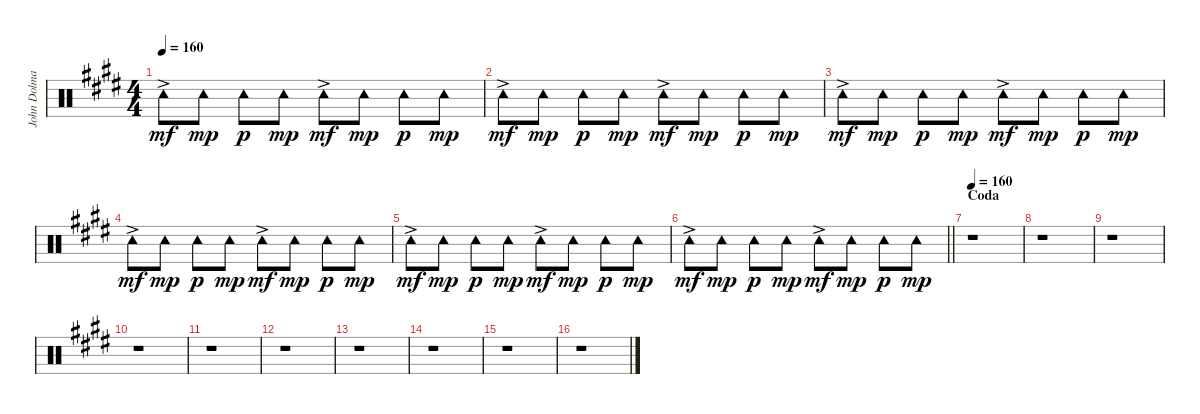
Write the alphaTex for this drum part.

\track ("John Dolmayan [Tambourine]" "John Dolma") {instrument percussion}
\staff {score}
\articulation defaults
\ts (4 4)
\tempo 160
\clef neutral
\ks c#minor "Tambourine (hit)"{ac}.8{dy mf} "Tambourine (hit)".8{dy mp} "Tambourine (hit)".8{dy p} "Tambourine (hit)".8{dy mp} "Tambourine (hit)"{ac}.8{dy mf} "Tambourine (hit)".8{dy mp} "Tambourine (hit)".8{dy p} "Tambourine (hit)".8{dy mp}
|
"Tambourine (hit)"{ac}.8{dy mf} "Tambourine (hit)".8{dy mp} "Tambourine (hit)".8{dy p} "Tambourine (hit)".8{dy mp} "Tambourine (hit)"{ac}.8{dy mf} "Tambourine (hit)".8{dy mp} "Tambourine (hit)".8{dy p} "Tambourine (hit)".8{dy mp} |
"Tambourine (hit)"{ac}.8{dy mf} "Tambourine (hit)".8{dy mp} "Tambourine (hit)".8{dy p} "Tambourine (hit)".8{dy mp} "Tambourine (hit)"{ac}.8{dy mf} "Tambourine (hit)".8{dy mp} "Tambourine (hit)".8{dy p} "Tambourine (hit)".8{dy mp} |
"Tambourine (hit)"{ac}.8{dy mf} "Tambourine (hit)".8{dy mp} "Tambourine (hit)".8{dy p} "Tambourine (hit)".8{dy mp} "Tambourine (hit)"{ac}.8{dy mf} "Tambourine (hit)".8{dy mp} "Tambourine (hit)".8{dy p} "Tambourine (hit)".8{dy mp} |
"Tambourine (hit)"{ac}.8{dy mf} "Tambourine (hit)".8{dy mp} "Tambourine (hit)".8{dy p} "Tambourine (hit)".8{dy mp} "Tambourine (hit)"{ac}.8{dy mf} "Tambourine (hit)".8{dy mp} "Tambourine (hit)".8{dy p} "Tambourine (hit)".8{dy mp} |
\barLineRight lightlight "Tambourine (hit)"{ac}.8{dy mf} "Tambourine (hit)".8{dy mp} "Tambourine (hit)".8{dy p} "Tambourine (hit)".8{dy mp} "Tambourine (hit)"{ac}.8{dy mf} "Tambourine (hit)".8{dy mp} "Tambourine (hit)".8{dy p} "Tambourine (hit)".8{dy mp}
|
\section ("" "Coda")
\tempo 160
r.1 |
r.1 |
r.1 |
r.1 |
r.1 |
r.1 |
r.1 |
r.1 |
r.1 |
r.1
